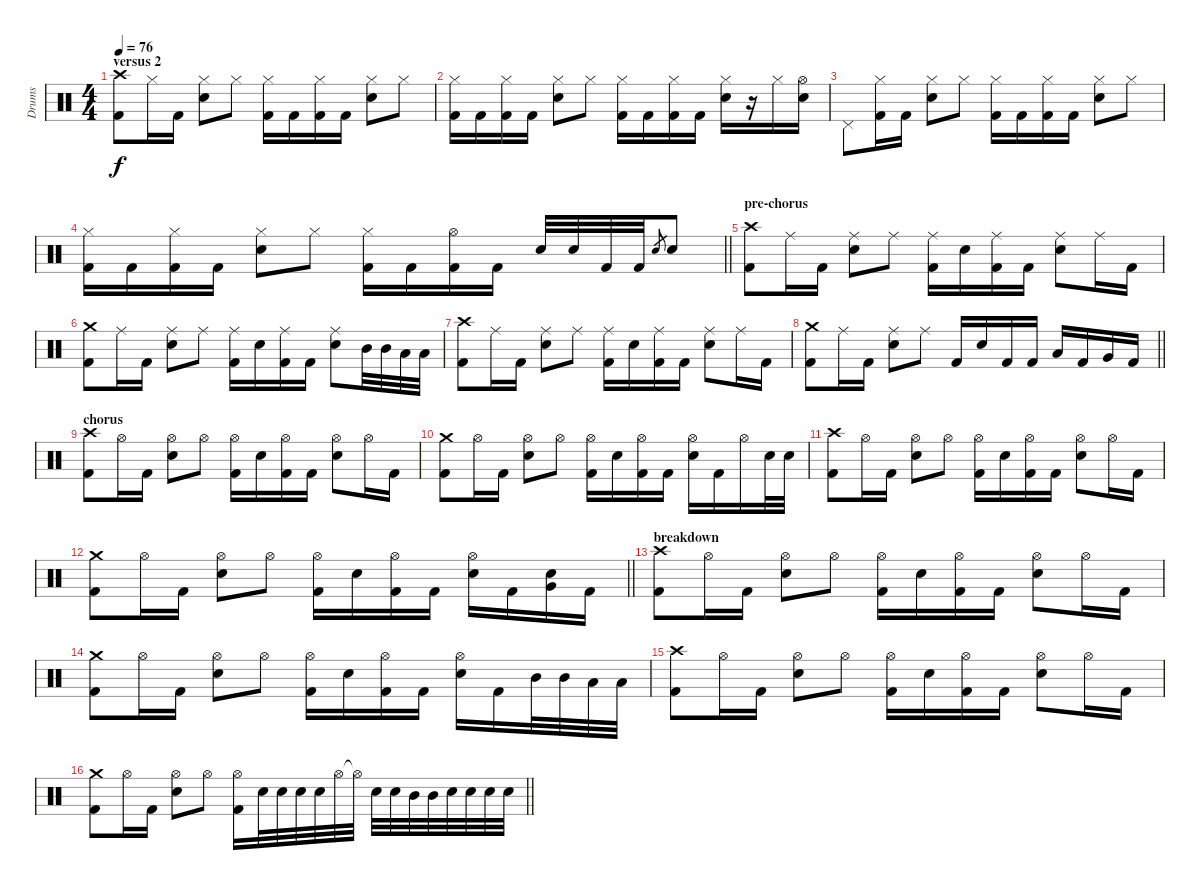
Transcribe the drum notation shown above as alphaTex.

\track ("Drums" "Drums") {instrument percussion}
\staff {score}
\articulation defaults
\ts (4 4)
\section ("" "versus 2")
\tempo 76
\clef neutral
\ks c
("Crash high (hit)" "Kick (hit) 2").8{dy f} "Hi-Hat (closed)".16 "Kick (hit) 2".16 ("Hi-Hat (closed)" "Snare (hit) 2").8 "Hi-Hat (closed)".8 ("Hi-Hat (closed)" "Kick (hit) 2").16 "Kick (hit) 2".16 ("Hi-Hat (closed)" "Kick (hit) 2").16 "Kick (hit) 2".16 ("Hi-Hat (closed)" "Snare (hit) 2").8 "Hi-Hat (closed)".8 |
("Hi-Hat (closed)" "Kick (hit) 2").16 "Kick (hit) 2".16 ("Hi-Hat (closed)" "Kick (hit) 2").16 "Kick (hit) 2".16 ("Hi-Hat (closed)" "Snare (hit) 2").8 "Hi-Hat (closed)".8 ("Hi-Hat (closed)" "Kick (hit) 2").16 "Kick (hit) 2".16 ("Hi-Hat (closed)" "Kick (hit) 2").16 "Kick (hit) 2".16 ("Hi-Hat (closed)" "Snare (hit) 2").16 r.16 "Hi-Hat (closed)".16 ("Hi-Hat (open)" "Snare (hit) 2").16 |
"Pedal Hi-Hat (hit)".8 ("Hi-Hat (closed)" "Kick (hit) 2").16 "Kick (hit) 2".16 ("Hi-Hat (closed)" "Snare (hit) 2").8 "Hi-Hat (closed)".8 ("Hi-Hat (closed)" "Kick (hit) 2").16 "Kick (hit) 2".16 ("Hi-Hat (closed)" "Kick (hit) 2").16 "Kick (hit) 2".16 ("Hi-Hat (closed)" "Snare (hit) 2").8 "Hi-Hat (closed)".8 |
\barLineRight lightlight
("Hi-Hat (closed)" "Kick (hit) 2").16 "Kick (hit) 2".16 ("Hi-Hat (closed)" "Kick (hit) 2").16 "Kick (hit) 2".16 ("Hi-Hat (closed)" "Snare (hit) 2").8 "Hi-Hat (closed)".8 ("Hi-Hat (closed)" "Kick (hit) 2").16 "Kick (hit) 2".16 ("Hi-Hat (open)" "Kick (hit) 2").16 "Kick (hit) 2".16 "Snare (hit) 2".32 "Snare (hit) 2".32 "Kick (hit) 2".32 "Kick (hit) 2".32 "Snare (hit) 2".8{gr} "Snare (hit) 2".8 |
\section ("" "pre-chorus")
("Crash high (hit)" "Kick (hit) 2").8 "Ride (middle)".16 "Kick (hit) 2".16 ("Ride (middle)" "Snare (hit) 2").8 "Ride (middle)".8 ("Ride (middle)" "Kick (hit) 2").16 "Snare (hit) 2".16 ("Ride (middle)" "Kick (hit) 2").16 "Kick (hit) 2".16 ("Ride (middle)" "Snare (hit) 2").8 "Ride (middle)".16 "Kick (hit) 2".16 |
("Crash medium (hit)" "Kick (hit) 2").8 "Ride (middle)".16 "Kick (hit) 2".16 ("Ride (middle)" "Snare (hit) 2").8 "Ride (middle)".8 ("Ride (middle)" "Kick (hit) 2").16 "Snare (hit) 2".16 ("Ride (middle)" "Kick (hit) 2").16 "Kick (hit) 2".16 ("Ride (middle)" "Snare (hit) 2").8 "Mid Tom (hit)".32 "Mid Tom (hit)".32 "Low Tom (hit)".32 "Low Tom (hit)".32 |
("Crash high (hit)" "Kick (hit) 2").8 "Ride (middle)".16 "Kick (hit) 2".16 ("Ride (middle)" "Snare (hit) 2").8 "Ride (middle)".8 ("Ride (middle)" "Kick (hit) 2").16 "Snare (hit) 2".16 ("Ride (middle)" "Kick (hit) 2").16 "Kick (hit) 2".16 ("Ride (middle)" "Snare (hit) 2").8 "Ride (middle)".16 "Kick (hit) 2".16 |
\barLineRight lightlight
("Crash medium (hit)" "Kick (hit) 2").8 "Ride (middle)".16 "Kick (hit) 2".16 ("Ride (middle)" "Snare (hit) 2").8 "Ride (middle)".8 "Kick (hit) 2".16 "Snare (hit) 2".16 "Kick (hit) 2".16 "Kick (hit) 2".16 "Low Tom (hit)".16 "Kick (hit) 2".16 "Very Low Tom (hit)".16 "Kick (hit) 2".16 |
\section ("" "chorus")
("Crash high (hit)" "Kick (hit) 2").8 "Hi-Hat (open)".16 "Kick (hit) 2".16 ("Hi-Hat (open)" "Snare (hit) 2").8 "Hi-Hat (open)".8 ("Hi-Hat (open)" "Kick (hit) 2").16 "Snare (hit) 2".16 ("Hi-Hat (open)" "Kick (hit) 2").16 "Kick (hit) 2".16 ("Hi-Hat (open)" "Snare (hit) 2").8 "Hi-Hat (open)".16 "Kick (hit) 2".16 |
("Crash medium (hit)" "Kick (hit) 2").8 "Hi-Hat (open)".16 "Kick (hit) 2".16 ("Hi-Hat (open)" "Snare (hit) 2").8 "Hi-Hat (open)".8 ("Hi-Hat (open)" "Kick (hit) 2").16 "Snare (hit) 2".16 ("Hi-Hat (open)" "Kick (hit) 2").16 "Kick (hit) 2".16 ("Hi-Hat (open)" "Snare (hit) 2").16 "Kick (hit) 2".16 "Hi-Hat (open)".16 "Snare (hit) 2".32 "Snare (hit) 2".32 |
("Crash high (hit)" "Kick (hit) 2").8 "Hi-Hat (open)".16 "Kick (hit) 2".16 ("Hi-Hat (open)" "Snare (hit) 2").8 "Hi-Hat (open)".8 ("Hi-Hat (open)" "Kick (hit) 2").16 "Snare (hit) 2".16 ("Hi-Hat (open)" "Kick (hit) 2").16 "Kick (hit) 2".16 ("Hi-Hat (open)" "Snare (hit) 2").8 "Hi-Hat (open)".16 "Kick (hit) 2".16 |
\barLineRight lightlight
("Crash medium (hit)" "Kick (hit) 2").8 "Hi-Hat (open)".16 "Kick (hit) 2".16 ("Hi-Hat (open)" "Snare (hit) 2").8 "Hi-Hat (open)".8 ("Hi-Hat (open)" "Kick (hit) 2").16 "Snare (hit) 2".16 ("Hi-Hat (open)" "Kick (hit) 2").16 "Kick (hit) 2".16 ("Hi-Hat (open)" "Snare (hit) 2").16 "Kick (hit) 2".16 ("Snare (hit) 2" "Very Low Tom (hit)").16 "Kick (hit) 2".16 |
\section ("" "breakdown")
("Crash high (hit)" "Kick (hit) 2").8 "Hi-Hat (open)".16 "Kick (hit) 2".16 ("Hi-Hat (open)" "Snare (hit) 2").8 "Hi-Hat (open)".8 ("Hi-Hat (open)" "Kick (hit) 2").16 "Snare (hit) 2".16 ("Hi-Hat (open)" "Kick (hit) 2").16 "Kick (hit) 2".16 ("Hi-Hat (open)" "Snare (hit) 2").8 "Hi-Hat (open)".16 "Kick (hit) 2".16 |
("Crash medium (hit)" "Kick (hit) 2").8 "Hi-Hat (open)".16 "Kick (hit) 2".16 ("Hi-Hat (open)" "Snare (hit) 2").8 "Hi-Hat (open)".8 ("Hi-Hat (open)" "Kick (hit) 2").16 "Snare (hit) 2".16 ("Hi-Hat (open)" "Kick (hit) 2").16 "Kick (hit) 2".16 ("Hi-Hat (open)" "Snare (hit) 2").16 "Kick (hit) 2".16 "Mid Tom (hit)".32 "Mid Tom (hit)".32 "Low Tom (hit)".32 "Low Tom (hit)".32 |
("Crash high (hit)" "Kick (hit) 2").8 "Hi-Hat (open)".16 "Kick (hit) 2".16 ("Hi-Hat (open)" "Snare (hit) 2").8 "Hi-Hat (open)".8 ("Hi-Hat (open)" "Kick (hit) 2").16 "Snare (hit) 2".16 ("Hi-Hat (open)" "Kick (hit) 2").16 "Kick (hit) 2".16 ("Hi-Hat (open)" "Snare (hit) 2").8 "Hi-Hat (open)".16 "Kick (hit) 2".16 |
\barLineRight lightlight
("Crash medium (hit)" "Kick (hit) 2").8 "Hi-Hat (open)".16 "Kick (hit) 2".16 ("Hi-Hat (open)" "Snare (hit) 2").8 "Hi-Hat (open)".8 ("Hi-Hat (open)" "Kick (hit) 2").16 "Snare (hit) 2".32 "Snare (hit) 2".32 "Snare (hit) 2".32 "Snare (hit) 2".32 "Hi-Hat (open)".32 "Hi-Hat (open)"{t}.32 "Snare (hit) 2".32 "Snare (hit) 2".32 "Mid Tom (hit)".32 "Mid Tom (hit)".32 "Snare (hit) 2".32 "Snare (hit) 2".32 "Snare (hit) 2".32 "Snare (hit) 2".32
